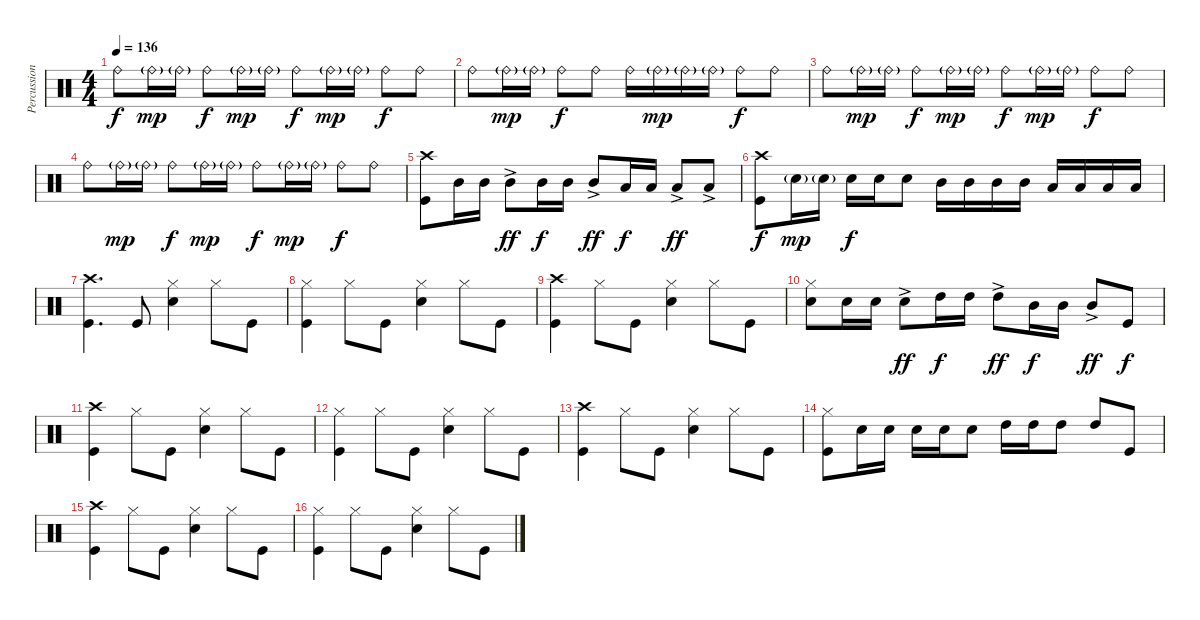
\track ("Percussion" "Percussion") {instrument percussion}
\staff {score}
\articulation defaults
\ts (4 4)
\tempo 136
\clef neutral
\ks c "Ride (bell)".8{dy f} "Ride (bell)"{g}.16{dy mp} "Ride (bell)"{g}.16 "Ride (bell)".8{dy f} "Ride (bell)"{g}.16{dy mp} "Ride (bell)"{g}.16 "Ride (bell)".8{dy f} "Ride (bell)"{g}.16{dy mp} "Ride (bell)"{g}.16 "Ride (bell)".8{dy f} "Ride (bell)".8
|
"Ride (bell)".8 "Ride (bell)"{g}.16{dy mp} "Ride (bell)"{g}.16 "Ride (bell)".8{dy f} "Ride (bell)".8 "Ride (bell)".16 "Ride (bell)"{g}.16{dy mp} "Ride (bell)"{g}.16 "Ride (bell)"{g}.16 "Ride (bell)".8{dy f} "Ride (bell)".8 |
"Ride (bell)".8 "Ride (bell)"{g}.16{dy mp} "Ride (bell)"{g}.16 "Ride (bell)".8{dy f} "Ride (bell)"{g}.16{dy mp} "Ride (bell)"{g}.16 "Ride (bell)".8{dy f} "Ride (bell)"{g}.16{dy mp} "Ride (bell)"{g}.16 "Ride (bell)".8{dy f} "Ride (bell)".8 |
"Ride (bell)".8 "Ride (bell)"{g}.16{dy mp} "Ride (bell)"{g}.16 "Ride (bell)".8{dy f} "Ride (bell)"{g}.16{dy mp} "Ride (bell)"{g}.16 "Ride (bell)".8{dy f} "Ride (bell)"{g}.16{dy mp} "Ride (bell)"{g}.16 "Ride (bell)".8{dy f} "Ride (bell)".8 |
("Crash high (hit)" "Kick (hit)").8 "Mid Tom (hit)".16 "Mid Tom (hit)".16 "Mid Tom (hit)"{ac}.8{dy ff} "Mid Tom (hit)".16{dy f} "Mid Tom (hit)".16 "Mid Tom (hit)"{ac}.8{dy ff} "Low Floor Tom (hit)".16{dy f} "Low Floor Tom (hit)".16 "Low Floor Tom (hit)"{ac}.8{dy ff} "Low Floor Tom (hit)"{ac}.8 |
("Crash high (hit)" "Kick (hit)").8{dy f} "Snare (hit) 2"{g}.16{dy mp} "Snare (hit) 2"{g}.16 "Snare (hit) 2".16{dy f} "Snare (hit) 2".16 "Snare (hit) 2".8 "Mid Tom (hit)".16 "Mid Tom (hit)".16 "Mid Tom (hit)".16 "Mid Tom (hit)".16 "Low Floor Tom (hit)".16 "Low Floor Tom (hit)".16 "Low Floor Tom (hit)".16 "Low Floor Tom (hit)".16 |
("Crash high (hit)" "Kick (hit)").4{d} "Kick (hit)".8 ("Hi-Hat (closed)" "Snare (hit) 2").4 "Hi-Hat (closed)".8 "Kick (hit)".8 |
("Hi-Hat (closed)" "Kick (hit)").4 "Hi-Hat (closed)".8 "Kick (hit)".8 ("Hi-Hat (closed)" "Snare (hit) 2").4 "Hi-Hat (closed)".8 "Kick (hit)".8 |
("Crash high (hit)" "Kick (hit)").4 "Hi-Hat (closed)".8 "Kick (hit)".8 ("Hi-Hat (closed)" "Snare (hit) 2").4 "Hi-Hat (closed)".8 "Kick (hit)".8 |
("Hi-Hat (closed)" "Snare (hit) 2").8 "Snare (hit) 2".16 "Snare (hit) 2".16 "Snare (hit) 2"{ac}.8{dy ff} "High Tom (hit)".16{dy f} "High Tom (hit)".16 "High Tom (hit)"{ac}.8{dy ff} "Mid Tom (hit)".16{dy f} "Mid Tom (hit)".16 "Mid Tom (hit)"{ac}.8{dy ff} "Kick (hit)".8{dy f} |
("Crash high (hit)" "Kick (hit)").4 "Hi-Hat (closed)".8 "Kick (hit)".8 ("Hi-Hat (closed)" "Snare (hit) 2").4 "Hi-Hat (closed)".8 "Kick (hit)".8 |
("Hi-Hat (closed)" "Kick (hit)").4 "Hi-Hat (closed)".8 "Kick (hit)".8 ("Hi-Hat (closed)" "Snare (hit) 2").4 "Hi-Hat (closed)".8 "Kick (hit)".8 |
("Crash high (hit)" "Kick (hit)").4 "Hi-Hat (closed)".8 "Kick (hit)".8 ("Hi-Hat (closed)" "Snare (hit) 2").4 "Hi-Hat (closed)".8 "Kick (hit)".8 |
("Hi-Hat (closed)" "Kick (hit)").8 "Snare (hit) 2".16 "Snare (hit) 2".16 "Snare (hit) 2".16 "Snare (hit) 2".16 "Snare (hit) 2".8 "High Tom (hit)".16 "High Tom (hit)".16 "High Tom (hit)".8 "High Tom (hit)".8 "Kick (hit)".8 |
("Crash high (hit)" "Kick (hit)").4 "Hi-Hat (closed)".8 "Kick (hit)".8 ("Hi-Hat (closed)" "Snare (hit) 2").4 "Hi-Hat (closed)".8 "Kick (hit)".8 |
("Hi-Hat (closed)" "Kick (hit)").4 "Hi-Hat (closed)".8 "Kick (hit)".8 ("Hi-Hat (closed)" "Snare (hit) 2").4 "Hi-Hat (closed)".8 "Kick (hit)".8
